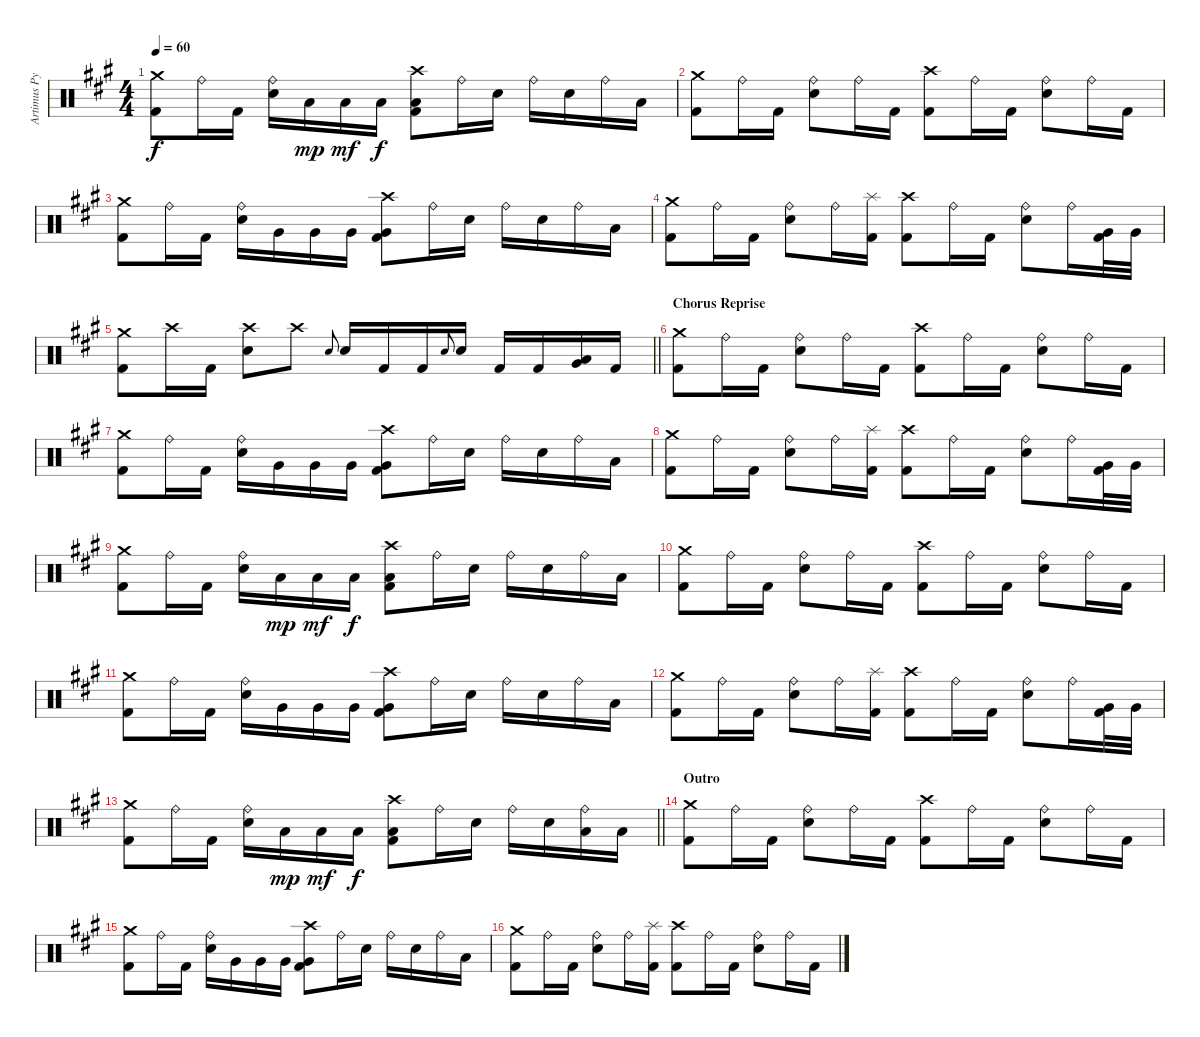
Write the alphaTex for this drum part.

\track ("Artimus Pyle - Drums" "Artimus Py") {instrument percussion}
\staff {score}
\articulation defaults
\ts (4 4)
\tempo 60
\clef neutral
\ks f#minor
("Crash medium (hit)" "Kick (hit) 2").8{dy f} "Ride (bell)".16 "Kick (hit) 2".16 ("Ride (bell)" "Snare (hit) 2").16 "Low Floor Tom (hit)".16{dy mp} "Low Floor Tom (hit)".16{dy mf} "Low Floor Tom (hit)".16{dy f} ("Crash high (hit)" "Low Floor Tom (hit)" "Kick (hit) 2").8 "Ride (bell)".16 "Snare (hit) 2".16 "Ride (bell)".16 "Snare (hit) 2".16 "Ride (bell)".16 "Low Floor Tom (hit)".16 |
("Crash medium (hit)" "Kick (hit) 2").8 "Ride (bell)".16 "Kick (hit) 2".16 ("Ride (bell)" "Snare (hit) 2").8 "Ride (bell)".16 "Kick (hit) 2".16 ("Crash high (hit)" "Kick (hit) 2").8 "Ride (bell)".16 "Kick (hit) 2".16 ("Ride (bell)" "Snare (hit) 2").8 "Ride (bell)".16 "Kick (hit) 2".16 |
("Crash medium (hit)" "Kick (hit) 2").8 "Ride (bell)".16 "Kick (hit) 2".16 ("Ride (bell)" "Snare (hit) 2").16 "Very Low Tom (hit)".16 "Very Low Tom (hit)".16 "Very Low Tom (hit)".16 ("Crash high (hit)" "Very Low Tom (hit)" "Kick (hit) 2").8 "Ride (bell)".16 "Snare (hit) 2".16 "Ride (bell)".16 "Snare (hit) 2".16 "Ride (bell)".16 "Low Floor Tom (hit)".16 |
("Crash medium (hit)" "Kick (hit) 2").8 "Ride (bell)".16 "Kick (hit) 2".16 ("Ride (bell)" "Snare (hit) 2").8 "Ride (bell)".16 ("Splash (hit)" "Kick (hit) 2").16 ("Crash high (hit)" "Kick (hit) 2").8 "Ride (bell)".16 "Kick (hit) 2".16 ("Ride (bell)" "Snare (hit) 2").8 "Ride (bell)".16 ("Very Low Tom (hit)" "Kick (hit) 2").32 "Very Low Tom (hit)".32 |
\barLineRight lightlight
("Crash medium (hit)" "Kick (hit) 2").8 "Crash high (hit)".16 "Kick (hit) 2".16 ("Crash high (hit)" "Snare (hit) 2").8 "Crash high (hit)".8 "Snare (hit) 2".8{gr onbeat} "Snare (hit) 2".16 "Kick (hit) 2".16 "Kick (hit) 2".16 "Snare (hit) 2".8{gr onbeat} "Snare (hit) 2".16 "Kick (hit) 2".16 "Kick (hit) 2".16 ("Very Low Tom (hit)" "Low Floor Tom (hit)").16 "Kick (hit) 2".16 |
\section ("" "Chorus Reprise")
("Crash medium (hit)" "Kick (hit) 2").8 "Ride (bell)".16 "Kick (hit) 2".16 ("Ride (bell)" "Snare (hit) 2").8 "Ride (bell)".16 "Kick (hit) 2".16 ("Crash high (hit)" "Kick (hit) 2").8 "Ride (bell)".16 "Kick (hit) 2".16 ("Ride (bell)" "Snare (hit) 2").8 "Ride (bell)".16 "Kick (hit) 2".16 |
("Crash medium (hit)" "Kick (hit) 2").8 "Ride (bell)".16 "Kick (hit) 2".16 ("Ride (bell)" "Snare (hit) 2").16 "Very Low Tom (hit)".16 "Very Low Tom (hit)".16 "Very Low Tom (hit)".16 ("Crash high (hit)" "Very Low Tom (hit)" "Kick (hit) 2").8 "Ride (bell)".16 "Snare (hit) 2".16 "Ride (bell)".16 "Snare (hit) 2".16 "Ride (bell)".16 "Low Floor Tom (hit)".16 |
("Crash medium (hit)" "Kick (hit) 2").8 "Ride (bell)".16 "Kick (hit) 2".16 ("Ride (bell)" "Snare (hit) 2").8 "Ride (bell)".16 ("Splash (hit)" "Kick (hit) 2").16 ("Crash high (hit)" "Kick (hit) 2").8 "Ride (bell)".16 "Kick (hit) 2".16 ("Ride (bell)" "Snare (hit) 2").8 "Ride (bell)".16 ("Very Low Tom (hit)" "Kick (hit) 2").32 "Very Low Tom (hit)".32 |
("Crash medium (hit)" "Kick (hit) 2").8 "Ride (bell)".16 "Kick (hit) 2".16 ("Ride (bell)" "Snare (hit) 2").16 "Low Floor Tom (hit)".16{dy mp} "Low Floor Tom (hit)".16{dy mf} "Low Floor Tom (hit)".16{dy f} ("Crash high (hit)" "Low Floor Tom (hit)" "Kick (hit) 2").8 "Ride (bell)".16 "Snare (hit) 2".16 "Ride (bell)".16 "Snare (hit) 2".16 "Ride (bell)".16 "Low Floor Tom (hit)".16 |
("Crash medium (hit)" "Kick (hit) 2").8 "Ride (bell)".16 "Kick (hit) 2".16 ("Ride (bell)" "Snare (hit) 2").8 "Ride (bell)".16 "Kick (hit) 2".16 ("Crash high (hit)" "Kick (hit) 2").8 "Ride (bell)".16 "Kick (hit) 2".16 ("Ride (bell)" "Snare (hit) 2").8 "Ride (bell)".16 "Kick (hit) 2".16 |
("Crash medium (hit)" "Kick (hit) 2").8 "Ride (bell)".16 "Kick (hit) 2".16 ("Ride (bell)" "Snare (hit) 2").16 "Very Low Tom (hit)".16 "Very Low Tom (hit)".16 "Very Low Tom (hit)".16 ("Crash high (hit)" "Very Low Tom (hit)" "Kick (hit) 2").8 "Ride (bell)".16 "Snare (hit) 2".16 "Ride (bell)".16 "Snare (hit) 2".16 "Ride (bell)".16 "Low Floor Tom (hit)".16 |
("Crash medium (hit)" "Kick (hit) 2").8 "Ride (bell)".16 "Kick (hit) 2".16 ("Ride (bell)" "Snare (hit) 2").8 "Ride (bell)".16 ("Splash (hit)" "Kick (hit) 2").16 ("Crash high (hit)" "Kick (hit) 2").8 "Ride (bell)".16 "Kick (hit) 2".16 ("Ride (bell)" "Snare (hit) 2").8 "Ride (bell)".16 ("Very Low Tom (hit)" "Kick (hit) 2").32 "Very Low Tom (hit)".32 |
\barLineRight lightlight
("Crash medium (hit)" "Kick (hit) 2").8 "Ride (bell)".16 "Kick (hit) 2".16 ("Ride (bell)" "Snare (hit) 2").16 "Low Floor Tom (hit)".16{dy mp} "Low Floor Tom (hit)".16{dy mf} "Low Floor Tom (hit)".16{dy f} ("Crash high (hit)" "Low Floor Tom (hit)" "Kick (hit) 2").8 "Ride (bell)".16 "Snare (hit) 2".16 "Ride (bell)".16 "Snare (hit) 2".16 ("Ride (bell)" "Low Floor Tom (hit)").16 "Low Floor Tom (hit)".16 |
\section ("" "Outro")
("Crash medium (hit)" "Kick (hit) 2").8 "Ride (bell)".16 "Kick (hit) 2".16 ("Ride (bell)" "Snare (hit) 2").8 "Ride (bell)".16 "Kick (hit) 2".16 ("Crash high (hit)" "Kick (hit) 2").8 "Ride (bell)".16 "Kick (hit) 2".16 ("Ride (bell)" "Snare (hit) 2").8 "Ride (bell)".16 "Kick (hit) 2".16 |
("Crash medium (hit)" "Kick (hit) 2").8 "Ride (bell)".16 "Kick (hit) 2".16 ("Ride (bell)" "Snare (hit) 2").16 "Very Low Tom (hit)".16 "Very Low Tom (hit)".16 "Very Low Tom (hit)".16 ("Crash high (hit)" "Very Low Tom (hit)" "Kick (hit) 2").8 "Ride (bell)".16 "Snare (hit) 2".16 "Ride (bell)".16 "Snare (hit) 2".16 "Ride (bell)".16 "Low Floor Tom (hit)".16 |
("Crash medium (hit)" "Kick (hit) 2").8 "Ride (bell)".16 "Kick (hit) 2".16 ("Ride (bell)" "Snare (hit) 2").8 "Ride (bell)".16 ("Splash (hit)" "Kick (hit) 2").16 ("Crash high (hit)" "Kick (hit) 2").8 "Ride (bell)".16 "Kick (hit) 2".16 ("Ride (bell)" "Snare (hit) 2").8 "Ride (bell)".16 "Kick (hit) 2".16
